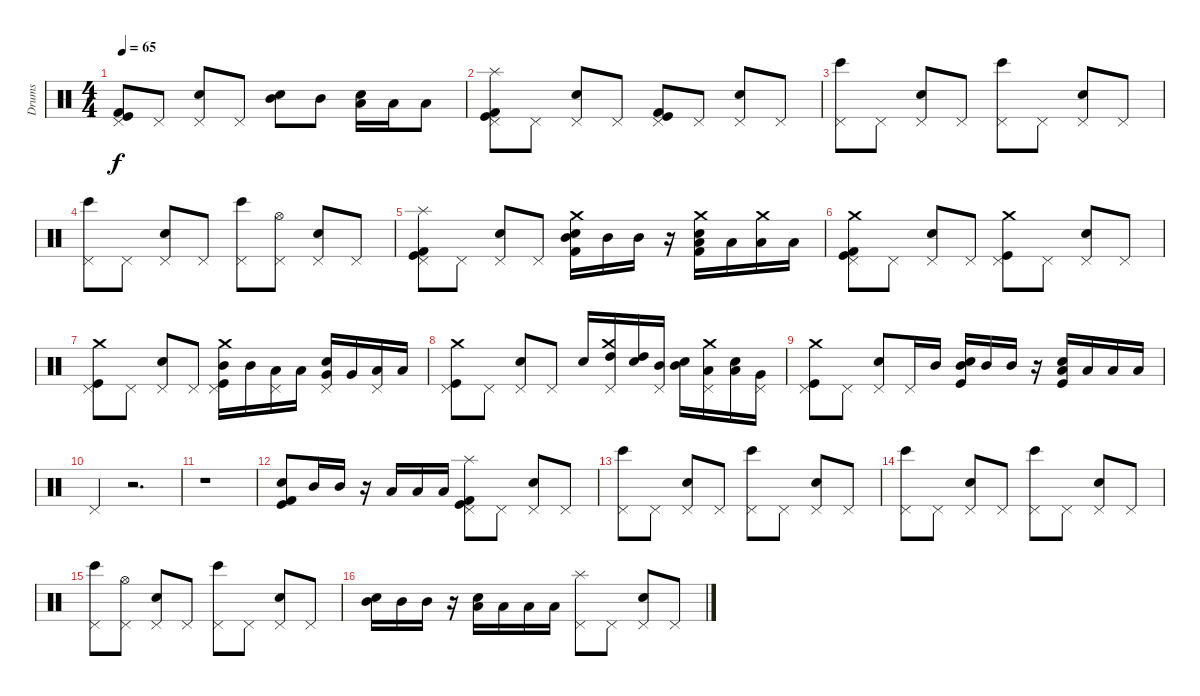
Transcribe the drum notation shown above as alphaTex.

\track ("Drums" "Drums") {instrument percussion}
\staff {score}
\articulation defaults
\ts (4 4)
\tempo 65
\clef neutral
\ks c
("Pedal Hi-Hat (hit)" "Kick (hit)" "Kick (hit) 2").8{dy f} "Pedal Hi-Hat (hit)".8 ("Pedal Hi-Hat (hit)" "Snare (hit) 2").8 "Pedal Hi-Hat (hit)".8 ("Snare (hit) 2" "Mid Tom (hit)").8 "Mid Tom (hit)".8 ("Snare (hit) 2" "Low Tom (hit)").16 "Low Tom (hit)".16 "Low Tom (hit)".8 |
("Pedal Hi-Hat (hit)" "Splash (hit)" "Kick (hit)" "Kick (hit) 2").8 "Pedal Hi-Hat (hit)".8 ("Pedal Hi-Hat (hit)" "Snare (hit) 2").8 "Pedal Hi-Hat (hit)".8 ("Pedal Hi-Hat (hit)" "Kick (hit)" "Kick (hit) 2").8 "Pedal Hi-Hat (hit)".8 ("Pedal Hi-Hat (hit)" "Snare (hit) 2").8 "Pedal Hi-Hat (hit)".8 |
("Pedal Hi-Hat (hit)" "Bongo High (hit)").8 "Pedal Hi-Hat (hit)".8 ("Pedal Hi-Hat (hit)" "Snare (hit) 2").8 "Pedal Hi-Hat (hit)".8 ("Pedal Hi-Hat (hit)" "Bongo High (hit)").8 "Pedal Hi-Hat (hit)".8 ("Pedal Hi-Hat (hit)" "Snare (hit) 2").8 "Pedal Hi-Hat (hit)".8 |
("Pedal Hi-Hat (hit)" "Bongo High (hit)").8 "Pedal Hi-Hat (hit)".8 ("Pedal Hi-Hat (hit)" "Snare (hit) 2").8 "Pedal Hi-Hat (hit)".8 ("Pedal Hi-Hat (hit)" "Bongo High (hit)").8 ("Pedal Hi-Hat (hit)" "Hi-Hat (open)").8 ("Pedal Hi-Hat (hit)" "Snare (hit) 2").8 "Pedal Hi-Hat (hit)".8 |
("Pedal Hi-Hat (hit)" "Splash (hit)" "Kick (hit)" "Kick (hit) 2").8 "Pedal Hi-Hat (hit)".8 ("Pedal Hi-Hat (hit)" "Snare (hit) 2").8 "Pedal Hi-Hat (hit)".8 ("Snare (hit) 2" "Mid Tom (hit)" "Kick (hit) 2" "Crash medium (hit)").16 "Mid Tom (hit)".16 "Mid Tom (hit)".16 r.16 ("Snare (hit) 2" "Low Tom (hit)" "Kick (hit) 2" "Crash medium (hit)").16 "Low Tom (hit)".16 ("Crash medium (hit)" "Low Tom (hit)").16 "Low Tom (hit)".16 |
("Pedal Hi-Hat (hit)" "Crash medium (hit)" "Kick (hit)" "Kick (hit) 2").8 "Pedal Hi-Hat (hit)".8 ("Pedal Hi-Hat (hit)" "Snare (hit) 2").8 "Pedal Hi-Hat (hit)".8 ("Pedal Hi-Hat (hit)" "Crash medium (hit)" "Kick (hit)").8 "Pedal Hi-Hat (hit)".8 ("Pedal Hi-Hat (hit)" "Snare (hit) 2").8 "Pedal Hi-Hat (hit)".8 |
("Pedal Hi-Hat (hit)" "Crash medium (hit)" "Kick (hit)").8 "Pedal Hi-Hat (hit)".8 ("Pedal Hi-Hat (hit)" "Snare (hit) 2").8 "Pedal Hi-Hat (hit)".8 ("Pedal Hi-Hat (hit)" "Crash medium (hit)" "Kick (hit)" "Mid Tom (hit)").16 "Mid Tom (hit)".16 ("Pedal Hi-Hat (hit)" "Low Tom (hit)").16 "Low Tom (hit)".16 ("Pedal Hi-Hat (hit)" "Snare (hit) 2" "Very Low Tom (hit)").16 "Very Low Tom (hit)".16 ("Pedal Hi-Hat (hit)" "Low Floor Tom (hit)").16 "Low Floor Tom (hit)".16 |
("Pedal Hi-Hat (hit)" "Crash medium (hit)" "Kick (hit)").8 "Pedal Hi-Hat (hit)".8 ("Pedal Hi-Hat (hit)" "Snare (hit) 2").8 "Pedal Hi-Hat (hit)".8 "Snare (hit) 2".16 ("Pedal Hi-Hat (hit)" "Crash medium (hit)" "High Tom (hit)").16 ("Snare (hit) 2" "High Tom (hit)").16 ("Pedal Hi-Hat (hit)" "Mid Tom (hit)").16 ("Snare (hit) 2" "Mid Tom (hit)").16 ("Pedal Hi-Hat (hit)" "Crash medium (hit)" "Low Tom (hit)").16 ("Snare (hit) 2" "Low Tom (hit)").16 ("Pedal Hi-Hat (hit)" "Very Low Tom (hit)").16 |
("Pedal Hi-Hat (hit)" "Crash medium (hit)" "Kick (hit)").8 "Pedal Hi-Hat (hit)".8 ("Pedal Hi-Hat (hit)" "Snare (hit) 2").8 "Pedal Hi-Hat (hit)".16 "Mid Tom (hit)".16 ("Snare (hit) 2" "Mid Tom (hit)" "Kick (hit)").16 "Mid Tom (hit)".16 "Mid Tom (hit)".16 r.16 ("Snare (hit) 2" "Low Tom (hit)" "Kick (hit)").16 "Low Tom (hit)".16 "Low Tom (hit)".16 "Low Tom (hit)".16 |
"Pedal Hi-Hat (hit)".4 r.2{d} |
r.1 |
("Snare (hit) 2" "Kick (hit)" "Kick (hit) 2").8 "Mid Tom (hit)".16 "Mid Tom (hit)".16 r.16 "Low Floor Tom (hit)".16 "Low Tom (hit)".16 "Low Tom (hit)".16 ("Pedal Hi-Hat (hit)" "Splash (hit)" "Kick (hit)" "Kick (hit) 2").8 "Pedal Hi-Hat (hit)".8 ("Pedal Hi-Hat (hit)" "Snare (hit) 2").8 "Pedal Hi-Hat (hit)".8 |
("Pedal Hi-Hat (hit)" "Bongo High (hit)").8 "Pedal Hi-Hat (hit)".8 ("Pedal Hi-Hat (hit)" "Snare (hit) 2").8 "Pedal Hi-Hat (hit)".8 ("Pedal Hi-Hat (hit)" "Bongo High (hit)").8 "Pedal Hi-Hat (hit)".8 ("Pedal Hi-Hat (hit)" "Snare (hit) 2").8 "Pedal Hi-Hat (hit)".8 |
("Pedal Hi-Hat (hit)" "Bongo High (hit)").8 "Pedal Hi-Hat (hit)".8 ("Pedal Hi-Hat (hit)" "Snare (hit) 2").8 "Pedal Hi-Hat (hit)".8 ("Pedal Hi-Hat (hit)" "Bongo High (hit)").8 "Pedal Hi-Hat (hit)".8 ("Pedal Hi-Hat (hit)" "Snare (hit) 2").8 "Pedal Hi-Hat (hit)".8 |
("Pedal Hi-Hat (hit)" "Bongo High (hit)").8 ("Pedal Hi-Hat (hit)" "Hi-Hat (open)").8 ("Pedal Hi-Hat (hit)" "Snare (hit) 2").8 "Pedal Hi-Hat (hit)".8 ("Pedal Hi-Hat (hit)" "Bongo High (hit)").8 "Pedal Hi-Hat (hit)".8 ("Pedal Hi-Hat (hit)" "Snare (hit) 2").8 "Pedal Hi-Hat (hit)".8 |
("Snare (hit) 2" "Mid Tom (hit)").16 "Mid Tom (hit)".16 "Mid Tom (hit)".16 r.16 ("Snare (hit) 2" "Low Tom (hit)").16 "Low Tom (hit)".16 "Low Tom (hit)".16 "Low Tom (hit)".16 ("Pedal Hi-Hat (hit)" "Splash (hit)").8 "Pedal Hi-Hat (hit)".8 ("Pedal Hi-Hat (hit)" "Snare (hit) 2").8 "Pedal Hi-Hat (hit)".8
